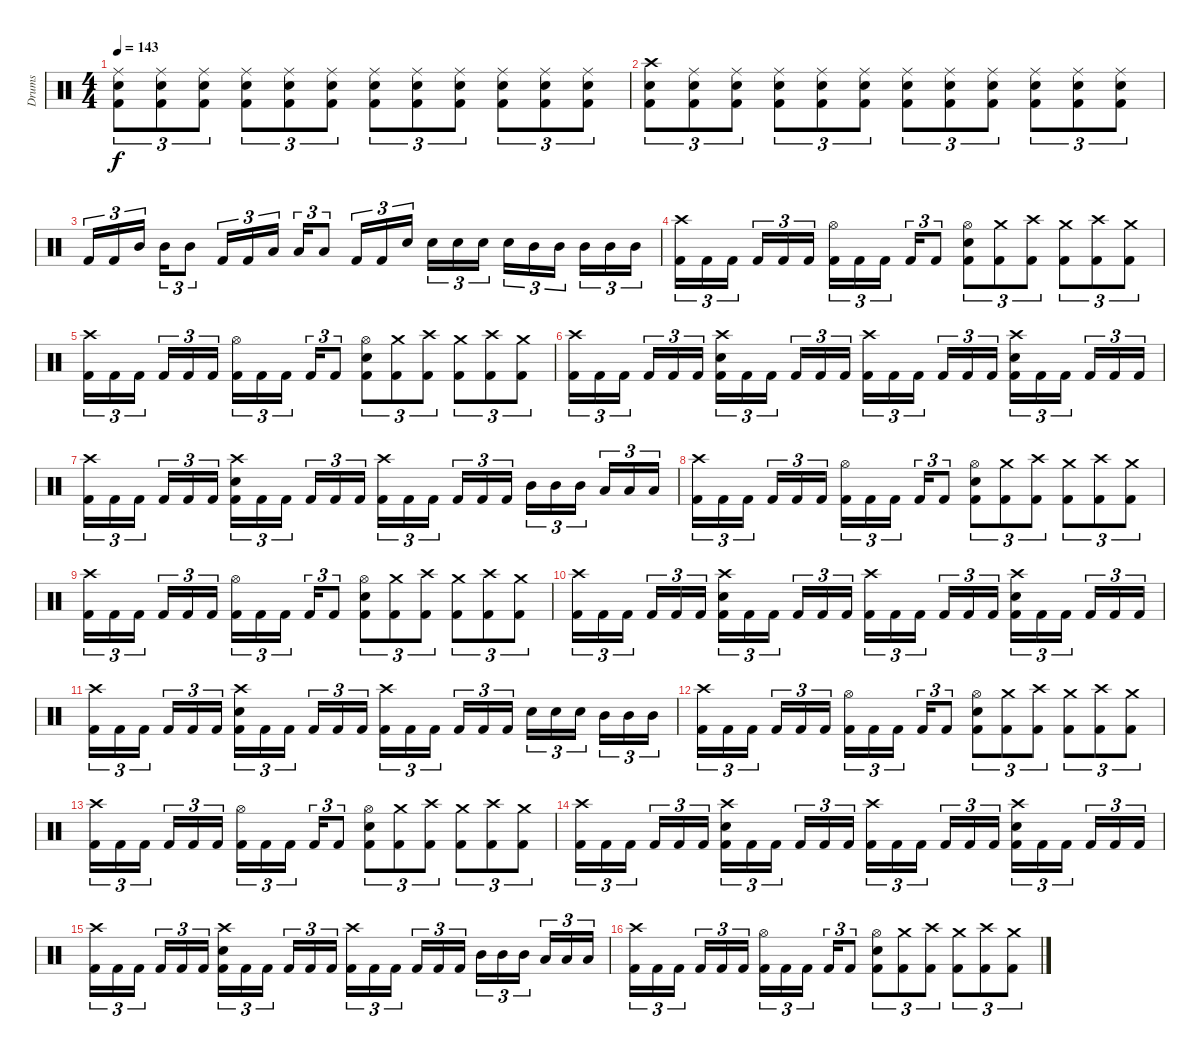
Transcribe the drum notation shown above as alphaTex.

\track ("Drums" "Drums") {instrument percussion}
\staff {score}
\articulation defaults
\ts (4 4)
\tempo 143
\clef neutral
\ks c
("Ride (middle)" "Snare (hit) 2" "Kick (hit) 2").8{tu (3 2) dy f} ("Ride (middle)" "Snare (hit) 2" "Kick (hit) 2").8{tu (3 2)} ("Ride (middle)" "Snare (hit) 2" "Kick (hit) 2").8{tu (3 2)} ("Ride (middle)" "Snare (hit) 2" "Kick (hit) 2").8{tu (3 2)} ("Ride (middle)" "Snare (hit) 2" "Kick (hit) 2").8{tu (3 2)} ("Ride (middle)" "Snare (hit) 2" "Kick (hit) 2").8{tu (3 2)} ("Ride (middle)" "Snare (hit) 2" "Kick (hit) 2").8{tu (3 2)} ("Ride (middle)" "Snare (hit) 2" "Kick (hit) 2").8{tu (3 2)} ("Ride (middle)" "Snare (hit) 2" "Kick (hit) 2").8{tu (3 2)} ("Ride (middle)" "Snare (hit) 2" "Kick (hit) 2").8{tu (3 2)} ("Ride (middle)" "Snare (hit) 2" "Kick (hit) 2").8{tu (3 2)} ("Ride (middle)" "Snare (hit) 2" "Kick (hit) 2").8{tu (3 2)} |
("Crash high (hit)" "Snare (hit) 2" "Kick (hit) 2").8{tu (3 2)} ("Ride (middle)" "Snare (hit) 2" "Kick (hit) 2").8{tu (3 2)} ("Ride (middle)" "Snare (hit) 2" "Kick (hit) 2").8{tu (3 2)} ("Ride (middle)" "Snare (hit) 2" "Kick (hit) 2").8{tu (3 2)} ("Ride (middle)" "Snare (hit) 2" "Kick (hit) 2").8{tu (3 2)} ("Ride (middle)" "Snare (hit) 2" "Kick (hit) 2").8{tu (3 2)} ("Ride (middle)" "Snare (hit) 2" "Kick (hit) 2").8{tu (3 2)} ("Ride (middle)" "Snare (hit) 2" "Kick (hit) 2").8{tu (3 2)} ("Ride (middle)" "Snare (hit) 2" "Kick (hit) 2").8{tu (3 2)} ("Ride (middle)" "Snare (hit) 2" "Kick (hit) 2").8{tu (3 2)} ("Ride (middle)" "Snare (hit) 2" "Kick (hit) 2").8{tu (3 2)} ("Ride (middle)" "Snare (hit) 2" "Kick (hit) 2").8{tu (3 2)} |
"Kick (hit) 2".16{tu (3 2)} "Kick (hit) 2".16{tu (3 2)} "Mid Tom (hit)".16{tu (3 2) beam splitsecondary} "Mid Tom (hit)".16{tu (3 2)} "Mid Tom (hit)".8{tu (3 2)} "Kick (hit) 2".16{tu (3 2)} "Kick (hit) 2".16{tu (3 2)} "Low Tom (hit)".16{tu (3 2) beam splitsecondary} "Low Tom (hit)".16{tu (3 2)} "Low Tom (hit)".8{tu (3 2)} "Kick (hit) 2".16{tu (3 2)} "Kick (hit) 2".16{tu (3 2)} "Snare (hit) 2".16{tu (3 2) beam splitsecondary} "Snare (hit) 2".16{tu (3 2)} "Snare (hit) 2".16{tu (3 2)} "Snare (hit) 2".16{tu (3 2)} "Snare (hit) 2".16{tu (3 2)} "Mid Tom (hit)".16{tu (3 2)} "Mid Tom (hit)".16{tu (3 2) beam splitsecondary} "Mid Tom (hit)".16{tu (3 2)} "Mid Tom (hit)".16{tu (3 2)} "Mid Tom (hit)".16{tu (3 2)} |
("Crash high (hit)" "Kick (hit) 2").16{tu (3 2)} "Kick (hit) 2".16{tu (3 2)} "Kick (hit) 2".16{tu (3 2) beam splitsecondary} "Kick (hit) 2".16{tu (3 2)} "Kick (hit) 2".16{tu (3 2)} "Kick (hit) 2".16{tu (3 2)} ("Hi-Hat (open)" "Kick (hit) 2").16{tu (3 2)} "Kick (hit) 2".16{tu (3 2)} "Kick (hit) 2".16{tu (3 2) beam splitsecondary} "Kick (hit) 2".16{tu (3 2)} "Kick (hit) 2".8{tu (3 2)} ("Hi-Hat (open)" "Snare (hit) 2" "Kick (hit) 2").8{tu (3 2)} ("Crash medium (hit)" "Kick (hit) 2").8{tu (3 2)} ("Crash high (hit)" "Kick (hit) 2").8{tu (3 2)} ("Crash medium (hit)" "Kick (hit) 2").8{tu (3 2)} ("Crash high (hit)" "Kick (hit) 2").8{tu (3 2)} ("Crash medium (hit)" "Kick (hit) 2").8{tu (3 2)} |
("Crash high (hit)" "Kick (hit) 2").16{tu (3 2)} "Kick (hit) 2".16{tu (3 2)} "Kick (hit) 2".16{tu (3 2) beam splitsecondary} "Kick (hit) 2".16{tu (3 2)} "Kick (hit) 2".16{tu (3 2)} "Kick (hit) 2".16{tu (3 2)} ("Hi-Hat (open)" "Kick (hit) 2").16{tu (3 2)} "Kick (hit) 2".16{tu (3 2)} "Kick (hit) 2".16{tu (3 2) beam splitsecondary} "Kick (hit) 2".16{tu (3 2)} "Kick (hit) 2".8{tu (3 2)} ("Hi-Hat (open)" "Snare (hit) 2" "Kick (hit) 2").8{tu (3 2)} ("Crash medium (hit)" "Kick (hit) 2").8{tu (3 2)} ("Crash high (hit)" "Kick (hit) 2").8{tu (3 2)} ("Crash medium (hit)" "Kick (hit) 2").8{tu (3 2)} ("Crash high (hit)" "Kick (hit) 2").8{tu (3 2)} ("Crash medium (hit)" "Kick (hit) 2").8{tu (3 2)} |
("Crash high (hit)" "Kick (hit) 2").16{tu (3 2)} "Kick (hit) 2".16{tu (3 2)} "Kick (hit) 2".16{tu (3 2) beam splitsecondary} "Kick (hit) 2".16{tu (3 2)} "Kick (hit) 2".16{tu (3 2)} "Kick (hit) 2".16{tu (3 2)} ("Crash high (hit)" "Snare (hit) 2" "Kick (hit) 2").16{tu (3 2)} "Kick (hit) 2".16{tu (3 2)} "Kick (hit) 2".16{tu (3 2) beam splitsecondary} "Kick (hit) 2".16{tu (3 2)} "Kick (hit) 2".16{tu (3 2)} "Kick (hit) 2".16{tu (3 2)} ("Crash high (hit)" "Kick (hit) 2").16{tu (3 2)} "Kick (hit) 2".16{tu (3 2)} "Kick (hit) 2".16{tu (3 2) beam splitsecondary} "Kick (hit) 2".16{tu (3 2)} "Kick (hit) 2".16{tu (3 2)} "Kick (hit) 2".16{tu (3 2)} ("Crash high (hit)" "Snare (hit) 2" "Kick (hit) 2").16{tu (3 2)} "Kick (hit) 2".16{tu (3 2)} "Kick (hit) 2".16{tu (3 2) beam splitsecondary} "Kick (hit) 2".16{tu (3 2)} "Kick (hit) 2".16{tu (3 2)} "Kick (hit) 2".16{tu (3 2)} |
("Crash high (hit)" "Kick (hit) 2").16{tu (3 2)} "Kick (hit) 2".16{tu (3 2)} "Kick (hit) 2".16{tu (3 2) beam splitsecondary} "Kick (hit) 2".16{tu (3 2)} "Kick (hit) 2".16{tu (3 2)} "Kick (hit) 2".16{tu (3 2)} ("Crash high (hit)" "Snare (hit) 2" "Kick (hit) 2").16{tu (3 2)} "Kick (hit) 2".16{tu (3 2)} "Kick (hit) 2".16{tu (3 2) beam splitsecondary} "Kick (hit) 2".16{tu (3 2)} "Kick (hit) 2".16{tu (3 2)} "Kick (hit) 2".16{tu (3 2)} ("Crash high (hit)" "Kick (hit) 2").16{tu (3 2)} "Kick (hit) 2".16{tu (3 2)} "Kick (hit) 2".16{tu (3 2) beam splitsecondary} "Kick (hit) 2".16{tu (3 2)} "Kick (hit) 2".16{tu (3 2)} "Kick (hit) 2".16{tu (3 2)} "Mid Tom (hit)".16{tu (3 2)} "Mid Tom (hit)".16{tu (3 2)} "Mid Tom (hit)".16{tu (3 2) beam splitsecondary} "Low Tom (hit)".16{tu (3 2)} "Low Tom (hit)".16{tu (3 2)} "Low Tom (hit)".16{tu (3 2)} |
("Crash high (hit)" "Kick (hit) 2").16{tu (3 2)} "Kick (hit) 2".16{tu (3 2)} "Kick (hit) 2".16{tu (3 2) beam splitsecondary} "Kick (hit) 2".16{tu (3 2)} "Kick (hit) 2".16{tu (3 2)} "Kick (hit) 2".16{tu (3 2)} ("Hi-Hat (open)" "Kick (hit) 2").16{tu (3 2)} "Kick (hit) 2".16{tu (3 2)} "Kick (hit) 2".16{tu (3 2) beam splitsecondary} "Kick (hit) 2".16{tu (3 2)} "Kick (hit) 2".8{tu (3 2)} ("Hi-Hat (open)" "Snare (hit) 2" "Kick (hit) 2").8{tu (3 2)} ("Crash medium (hit)" "Kick (hit) 2").8{tu (3 2)} ("Crash high (hit)" "Kick (hit) 2").8{tu (3 2)} ("Crash medium (hit)" "Kick (hit) 2").8{tu (3 2)} ("Crash high (hit)" "Kick (hit) 2").8{tu (3 2)} ("Crash medium (hit)" "Kick (hit) 2").8{tu (3 2)} |
("Crash high (hit)" "Kick (hit) 2").16{tu (3 2)} "Kick (hit) 2".16{tu (3 2)} "Kick (hit) 2".16{tu (3 2) beam splitsecondary} "Kick (hit) 2".16{tu (3 2)} "Kick (hit) 2".16{tu (3 2)} "Kick (hit) 2".16{tu (3 2)} ("Hi-Hat (open)" "Kick (hit) 2").16{tu (3 2)} "Kick (hit) 2".16{tu (3 2)} "Kick (hit) 2".16{tu (3 2) beam splitsecondary} "Kick (hit) 2".16{tu (3 2)} "Kick (hit) 2".8{tu (3 2)} ("Hi-Hat (open)" "Snare (hit) 2" "Kick (hit) 2").8{tu (3 2)} ("Crash medium (hit)" "Kick (hit) 2").8{tu (3 2)} ("Crash high (hit)" "Kick (hit) 2").8{tu (3 2)} ("Crash medium (hit)" "Kick (hit) 2").8{tu (3 2)} ("Crash high (hit)" "Kick (hit) 2").8{tu (3 2)} ("Crash medium (hit)" "Kick (hit) 2").8{tu (3 2)} |
("Crash high (hit)" "Kick (hit) 2").16{tu (3 2)} "Kick (hit) 2".16{tu (3 2)} "Kick (hit) 2".16{tu (3 2) beam splitsecondary} "Kick (hit) 2".16{tu (3 2)} "Kick (hit) 2".16{tu (3 2)} "Kick (hit) 2".16{tu (3 2)} ("Crash high (hit)" "Snare (hit) 2" "Kick (hit) 2").16{tu (3 2)} "Kick (hit) 2".16{tu (3 2)} "Kick (hit) 2".16{tu (3 2) beam splitsecondary} "Kick (hit) 2".16{tu (3 2)} "Kick (hit) 2".16{tu (3 2)} "Kick (hit) 2".16{tu (3 2)} ("Crash high (hit)" "Kick (hit) 2").16{tu (3 2)} "Kick (hit) 2".16{tu (3 2)} "Kick (hit) 2".16{tu (3 2) beam splitsecondary} "Kick (hit) 2".16{tu (3 2)} "Kick (hit) 2".16{tu (3 2)} "Kick (hit) 2".16{tu (3 2)} ("Crash high (hit)" "Snare (hit) 2" "Kick (hit) 2").16{tu (3 2)} "Kick (hit) 2".16{tu (3 2)} "Kick (hit) 2".16{tu (3 2) beam splitsecondary} "Kick (hit) 2".16{tu (3 2)} "Kick (hit) 2".16{tu (3 2)} "Kick (hit) 2".16{tu (3 2)} |
("Crash high (hit)" "Kick (hit) 2").16{tu (3 2)} "Kick (hit) 2".16{tu (3 2)} "Kick (hit) 2".16{tu (3 2) beam splitsecondary} "Kick (hit) 2".16{tu (3 2)} "Kick (hit) 2".16{tu (3 2)} "Kick (hit) 2".16{tu (3 2)} ("Crash high (hit)" "Snare (hit) 2" "Kick (hit) 2").16{tu (3 2)} "Kick (hit) 2".16{tu (3 2)} "Kick (hit) 2".16{tu (3 2) beam splitsecondary} "Kick (hit) 2".16{tu (3 2)} "Kick (hit) 2".16{tu (3 2)} "Kick (hit) 2".16{tu (3 2)} ("Crash high (hit)" "Kick (hit) 2").16{tu (3 2)} "Kick (hit) 2".16{tu (3 2)} "Kick (hit) 2".16{tu (3 2) beam splitsecondary} "Kick (hit) 2".16{tu (3 2)} "Kick (hit) 2".16{tu (3 2)} "Kick (hit) 2".16{tu (3 2)} "Snare (hit) 2".16{tu (3 2)} "Snare (hit) 2".16{tu (3 2)} "Snare (hit) 2".16{tu (3 2) beam splitsecondary} "Mid Tom (hit)".16{tu (3 2)} "Mid Tom (hit)".16{tu (3 2)} "Mid Tom (hit)".16{tu (3 2)} |
("Crash high (hit)" "Kick (hit) 2").16{tu (3 2)} "Kick (hit) 2".16{tu (3 2)} "Kick (hit) 2".16{tu (3 2) beam splitsecondary} "Kick (hit) 2".16{tu (3 2)} "Kick (hit) 2".16{tu (3 2)} "Kick (hit) 2".16{tu (3 2)} ("Hi-Hat (open)" "Kick (hit) 2").16{tu (3 2)} "Kick (hit) 2".16{tu (3 2)} "Kick (hit) 2".16{tu (3 2) beam splitsecondary} "Kick (hit) 2".16{tu (3 2)} "Kick (hit) 2".8{tu (3 2)} ("Hi-Hat (open)" "Snare (hit) 2" "Kick (hit) 2").8{tu (3 2)} ("Crash medium (hit)" "Kick (hit) 2").8{tu (3 2)} ("Crash high (hit)" "Kick (hit) 2").8{tu (3 2)} ("Crash medium (hit)" "Kick (hit) 2").8{tu (3 2)} ("Crash high (hit)" "Kick (hit) 2").8{tu (3 2)} ("Crash medium (hit)" "Kick (hit) 2").8{tu (3 2)} |
("Crash high (hit)" "Kick (hit) 2").16{tu (3 2)} "Kick (hit) 2".16{tu (3 2)} "Kick (hit) 2".16{tu (3 2) beam splitsecondary} "Kick (hit) 2".16{tu (3 2)} "Kick (hit) 2".16{tu (3 2)} "Kick (hit) 2".16{tu (3 2)} ("Hi-Hat (open)" "Kick (hit) 2").16{tu (3 2)} "Kick (hit) 2".16{tu (3 2)} "Kick (hit) 2".16{tu (3 2) beam splitsecondary} "Kick (hit) 2".16{tu (3 2)} "Kick (hit) 2".8{tu (3 2)} ("Hi-Hat (open)" "Snare (hit) 2" "Kick (hit) 2").8{tu (3 2)} ("Crash medium (hit)" "Kick (hit) 2").8{tu (3 2)} ("Crash high (hit)" "Kick (hit) 2").8{tu (3 2)} ("Crash medium (hit)" "Kick (hit) 2").8{tu (3 2)} ("Crash high (hit)" "Kick (hit) 2").8{tu (3 2)} ("Crash medium (hit)" "Kick (hit) 2").8{tu (3 2)} |
("Crash high (hit)" "Kick (hit) 2").16{tu (3 2)} "Kick (hit) 2".16{tu (3 2)} "Kick (hit) 2".16{tu (3 2) beam splitsecondary} "Kick (hit) 2".16{tu (3 2)} "Kick (hit) 2".16{tu (3 2)} "Kick (hit) 2".16{tu (3 2)} ("Crash high (hit)" "Snare (hit) 2" "Kick (hit) 2").16{tu (3 2)} "Kick (hit) 2".16{tu (3 2)} "Kick (hit) 2".16{tu (3 2) beam splitsecondary} "Kick (hit) 2".16{tu (3 2)} "Kick (hit) 2".16{tu (3 2)} "Kick (hit) 2".16{tu (3 2)} ("Crash high (hit)" "Kick (hit) 2").16{tu (3 2)} "Kick (hit) 2".16{tu (3 2)} "Kick (hit) 2".16{tu (3 2) beam splitsecondary} "Kick (hit) 2".16{tu (3 2)} "Kick (hit) 2".16{tu (3 2)} "Kick (hit) 2".16{tu (3 2)} ("Crash high (hit)" "Snare (hit) 2" "Kick (hit) 2").16{tu (3 2)} "Kick (hit) 2".16{tu (3 2)} "Kick (hit) 2".16{tu (3 2) beam splitsecondary} "Kick (hit) 2".16{tu (3 2)} "Kick (hit) 2".16{tu (3 2)} "Kick (hit) 2".16{tu (3 2)} |
("Crash high (hit)" "Kick (hit) 2").16{tu (3 2)} "Kick (hit) 2".16{tu (3 2)} "Kick (hit) 2".16{tu (3 2) beam splitsecondary} "Kick (hit) 2".16{tu (3 2)} "Kick (hit) 2".16{tu (3 2)} "Kick (hit) 2".16{tu (3 2)} ("Crash high (hit)" "Snare (hit) 2" "Kick (hit) 2").16{tu (3 2)} "Kick (hit) 2".16{tu (3 2)} "Kick (hit) 2".16{tu (3 2) beam splitsecondary} "Kick (hit) 2".16{tu (3 2)} "Kick (hit) 2".16{tu (3 2)} "Kick (hit) 2".16{tu (3 2)} ("Crash high (hit)" "Kick (hit) 2").16{tu (3 2)} "Kick (hit) 2".16{tu (3 2)} "Kick (hit) 2".16{tu (3 2) beam splitsecondary} "Kick (hit) 2".16{tu (3 2)} "Kick (hit) 2".16{tu (3 2)} "Kick (hit) 2".16{tu (3 2)} "Mid Tom (hit)".16{tu (3 2)} "Mid Tom (hit)".16{tu (3 2)} "Mid Tom (hit)".16{tu (3 2) beam splitsecondary} "Low Tom (hit)".16{tu (3 2)} "Low Tom (hit)".16{tu (3 2)} "Low Tom (hit)".16{tu (3 2)} |
("Crash high (hit)" "Kick (hit) 2").16{tu (3 2)} "Kick (hit) 2".16{tu (3 2)} "Kick (hit) 2".16{tu (3 2) beam splitsecondary} "Kick (hit) 2".16{tu (3 2)} "Kick (hit) 2".16{tu (3 2)} "Kick (hit) 2".16{tu (3 2)} ("Hi-Hat (open)" "Kick (hit) 2").16{tu (3 2)} "Kick (hit) 2".16{tu (3 2)} "Kick (hit) 2".16{tu (3 2) beam splitsecondary} "Kick (hit) 2".16{tu (3 2)} "Kick (hit) 2".8{tu (3 2)} ("Hi-Hat (open)" "Snare (hit) 2" "Kick (hit) 2").8{tu (3 2)} ("Crash medium (hit)" "Kick (hit) 2").8{tu (3 2)} ("Crash high (hit)" "Kick (hit) 2").8{tu (3 2)} ("Crash medium (hit)" "Kick (hit) 2").8{tu (3 2)} ("Crash high (hit)" "Kick (hit) 2").8{tu (3 2)} ("Crash medium (hit)" "Kick (hit) 2").8{tu (3 2)}
